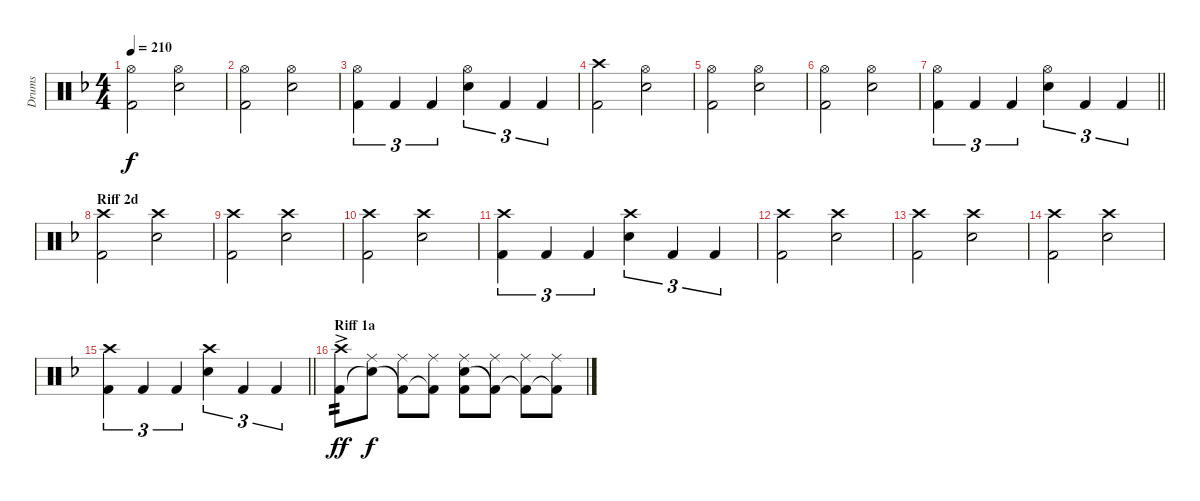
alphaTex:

\track ("Drums" "Drums") {instrument percussion}
\staff {score}
\articulation defaults
\ts (4 4)
\tempo 210
\clef neutral
\ks dminor
("Hi-Hat (open)" "Kick (hit) 2").2{dy f} ("Hi-Hat (open)" "Electric Snare (hit)").2 |
("Hi-Hat (open)" "Kick (hit) 2").2 ("Hi-Hat (open)" "Electric Snare (hit)").2 |
("Hi-Hat (open)" "Kick (hit) 2").4{tu (3 2)} "Kick (hit) 2".4{tu (3 2)} "Kick (hit) 2".4{tu (3 2)} ("Hi-Hat (open)" "Electric Snare (hit)").4{tu (3 2)} "Kick (hit) 2".4{tu (3 2)} "Kick (hit) 2".4{tu (3 2)} |
("Crash high (hit)" "Kick (hit) 2").2 ("Hi-Hat (open)" "Electric Snare (hit)").2 |
("Hi-Hat (open)" "Kick (hit) 2").2 ("Hi-Hat (open)" "Electric Snare (hit)").2 |
("Hi-Hat (open)" "Kick (hit) 2").2 ("Hi-Hat (open)" "Electric Snare (hit)").2 |
\barLineRight lightlight
("Hi-Hat (open)" "Kick (hit) 2").4{tu (3 2)} "Kick (hit) 2".4{tu (3 2)} "Kick (hit) 2".4{tu (3 2)} ("Hi-Hat (open)" "Electric Snare (hit)").4{tu (3 2)} "Kick (hit) 2".4{tu (3 2)} "Kick (hit) 2".4{tu (3 2)} |
\section ("" "Riff 2d")
("Crash high (hit)" "Kick (hit) 2").2 ("Crash high (hit)" "Electric Snare (hit)").2 |
("Crash high (hit)" "Kick (hit) 2").2 ("Crash high (hit)" "Electric Snare (hit)").2 |
("Crash high (hit)" "Kick (hit) 2").2 ("Crash high (hit)" "Electric Snare (hit)").2 |
("Crash high (hit)" "Kick (hit) 2").4{tu (3 2)} "Kick (hit) 2".4{tu (3 2)} "Kick (hit) 2".4{tu (3 2)} ("Crash high (hit)" "Electric Snare (hit)").4{tu (3 2)} "Kick (hit) 2".4{tu (3 2)} "Kick (hit) 2".4{tu (3 2)} |
("Crash high (hit)" "Kick (hit) 2").2 ("Crash high (hit)" "Electric Snare (hit)").2 |
("Crash high (hit)" "Kick (hit) 2").2 ("Crash high (hit)" "Electric Snare (hit)").2 |
("Crash high (hit)" "Kick (hit) 2").2 ("Crash high (hit)" "Electric Snare (hit)").2 |
\barLineRight lightlight
("Crash high (hit)" "Kick (hit) 2").4{tu (3 2)} "Kick (hit) 2".4{tu (3 2)} "Kick (hit) 2".4{tu (3 2)} ("Crash high (hit)" "Electric Snare (hit)").4{tu (3 2)} "Kick (hit) 2".4{tu (3 2)} "Kick (hit) 2".4{tu (3 2)} |
\section ("" "Riff 1a")
("Crash high (hit)" "Kick (hit) 2"{ac}).8{tp 2 dy ff} ("Ride (middle)" "Snare (hit)"{t}).8{dy f} ("Ride (middle)" "Kick (hit) 2"{t}).8 ("Ride (middle)" "Kick (hit) 2"{t}).8 ("Ride (middle)" "Electric Snare (hit)" "Kick (hit) 2").8 ("Ride (middle)" "Kick (hit) 2"{t}).8 ("Ride (middle)" "Kick (hit) 2"{t}).8 ("Ride (middle)" "Kick (hit) 2"{t}).8
